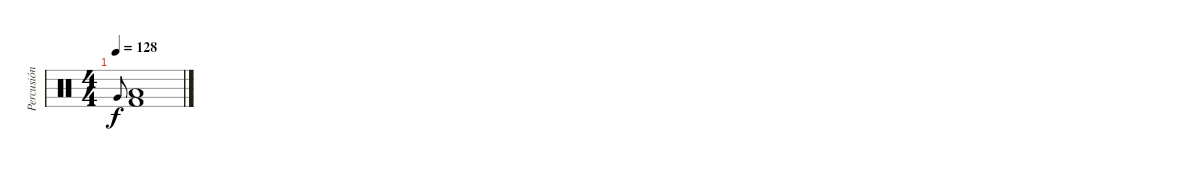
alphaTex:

\track ("Percusión" "Percusión") {instrument percussion}
\staff {score}
\articulation defaults
\ts (4 4)
\tempo 128
\clef neutral
\ks c "Very Low Tom (hit)".8{gr onbeat dy f}
("Low Tom (hit)" "Kick (hit) 2").1
